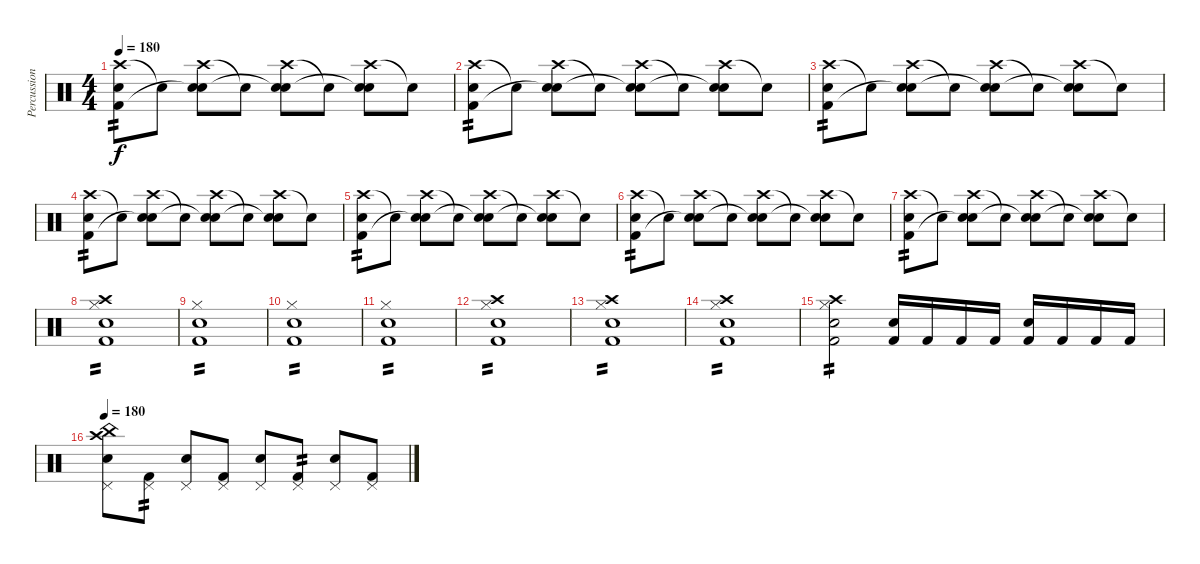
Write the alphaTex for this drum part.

\track ("Percussion" "Percussion") {instrument percussion}
\staff {score}
\articulation defaults
\ts (4 4)
\tempo 180
\clef neutral
\ks c
("Crash high (hit)" "Electric Snare (hit)" "Kick (hit) 2").8{tp 2 dy f} "Snare (hit)"{t}.8 ("Crash high (hit)" "Electric Snare (hit)" "Snare (hit)"{t}).8 "Snare (hit)"{t}.8 ("Crash high (hit)" "Electric Snare (hit)" "Snare (hit)"{t}).8 "Snare (hit)"{t}.8 ("Crash high (hit)" "Electric Snare (hit)" "Snare (hit)"{t}).8 "Snare (hit)"{t}.8 |
("Crash high (hit)" "Electric Snare (hit)" "Kick (hit) 2").8{tp 2} "Snare (hit)"{t}.8 ("Crash high (hit)" "Electric Snare (hit)" "Snare (hit)"{t}).8 "Snare (hit)"{t}.8 ("Crash high (hit)" "Electric Snare (hit)" "Snare (hit)"{t}).8 "Snare (hit)"{t}.8 ("Crash high (hit)" "Electric Snare (hit)" "Snare (hit)"{t}).8 "Snare (hit)"{t}.8 |
("Crash high (hit)" "Electric Snare (hit)" "Kick (hit) 2").8{tp 2} "Snare (hit)"{t}.8 ("Crash high (hit)" "Electric Snare (hit)" "Snare (hit)"{t}).8 "Snare (hit)"{t}.8 ("Crash high (hit)" "Electric Snare (hit)" "Snare (hit)"{t}).8 "Snare (hit)"{t}.8 ("Crash high (hit)" "Electric Snare (hit)" "Snare (hit)"{t}).8 "Snare (hit)"{t}.8 |
("Crash high (hit)" "Electric Snare (hit)" "Kick (hit) 2").8{tp 2} "Snare (hit)"{t}.8 ("Crash high (hit)" "Electric Snare (hit)" "Snare (hit)"{t}).8 "Snare (hit)"{t}.8 ("Crash high (hit)" "Electric Snare (hit)" "Snare (hit)"{t}).8 "Snare (hit)"{t}.8 ("Crash high (hit)" "Electric Snare (hit)" "Snare (hit)"{t}).8 "Snare (hit)"{t}.8 |
("Crash high (hit)" "Electric Snare (hit)" "Kick (hit) 2").8{tp 2} "Snare (hit)"{t}.8 ("Crash high (hit)" "Electric Snare (hit)" "Snare (hit)"{t}).8 "Snare (hit)"{t}.8 ("Crash high (hit)" "Electric Snare (hit)" "Snare (hit)"{t}).8 "Snare (hit)"{t}.8 ("Crash high (hit)" "Electric Snare (hit)" "Snare (hit)"{t}).8 "Snare (hit)"{t}.8 |
("Crash high (hit)" "Electric Snare (hit)" "Kick (hit) 2").8{tp 2} "Snare (hit)"{t}.8 ("Crash high (hit)" "Electric Snare (hit)" "Snare (hit)"{t}).8 "Snare (hit)"{t}.8 ("Crash high (hit)" "Electric Snare (hit)" "Snare (hit)"{t}).8 "Snare (hit)"{t}.8 ("Crash high (hit)" "Electric Snare (hit)" "Snare (hit)"{t}).8 "Snare (hit)"{t}.8 |
("Crash high (hit)" "Electric Snare (hit)" "Kick (hit) 2").8{tp 2} "Snare (hit)"{t}.8 ("Crash high (hit)" "Electric Snare (hit)" "Snare (hit)"{t}).8 "Snare (hit)"{t}.8 ("Crash high (hit)" "Electric Snare (hit)" "Snare (hit)"{t}).8 "Snare (hit)"{t}.8 ("Crash high (hit)" "Electric Snare (hit)" "Snare (hit)"{t}).8 "Snare (hit)"{t}.8 |
("Crash high (hit)" "Electric Snare (hit)" "Hi-Hat (closed)" "Kick (hit) 2").1{tp 2} |
("Electric Snare (hit)" "Hi-Hat (closed)" "Kick (hit) 2").1{tp 2} |
("Electric Snare (hit)" "Hi-Hat (closed)" "Kick (hit) 2").1{tp 2} |
("Electric Snare (hit)" "Hi-Hat (closed)" "Kick (hit) 2").1{tp 2} |
("Crash high (hit)" "Electric Snare (hit)" "Hi-Hat (closed)" "Kick (hit) 2").1{tp 2} |
("Crash high (hit)" "Electric Snare (hit)" "Hi-Hat (closed)" "Kick (hit) 2").1{tp 2} |
("Crash high (hit)" "Electric Snare (hit)" "Hi-Hat (closed)" "Kick (hit) 2").1{tp 2} |
("Crash high (hit)" "Electric Snare (hit)" "Hi-Hat (closed)" "Kick (hit) 2").2{tp 2} ("Electric Snare (hit)" "Kick (hit) 2").16 "Kick (hit) 2".16 "Kick (hit) 2".16 "Kick (hit) 2".16 ("Electric Snare (hit)" "Kick (hit) 2").16 "Kick (hit) 2".16 "Kick (hit) 2".16 "Kick (hit) 2".16 |
\tempo 180
("China (hit)" "Crash high (hit)" "Pedal Hi-Hat (hit)" "Electric Snare (hit)").8 ("Pedal Hi-Hat (hit)" "Kick (hit) 2").8{tp 2} ("Pedal Hi-Hat (hit)" "Electric Snare (hit)").8 ("Pedal Hi-Hat (hit)" "Kick (hit) 2").8 ("Pedal Hi-Hat (hit)" "Electric Snare (hit)").8 ("Pedal Hi-Hat (hit)" "Kick (hit) 2").8{tp 2} ("Pedal Hi-Hat (hit)" "Electric Snare (hit)").8 ("Pedal Hi-Hat (hit)" "Kick (hit) 2").8
